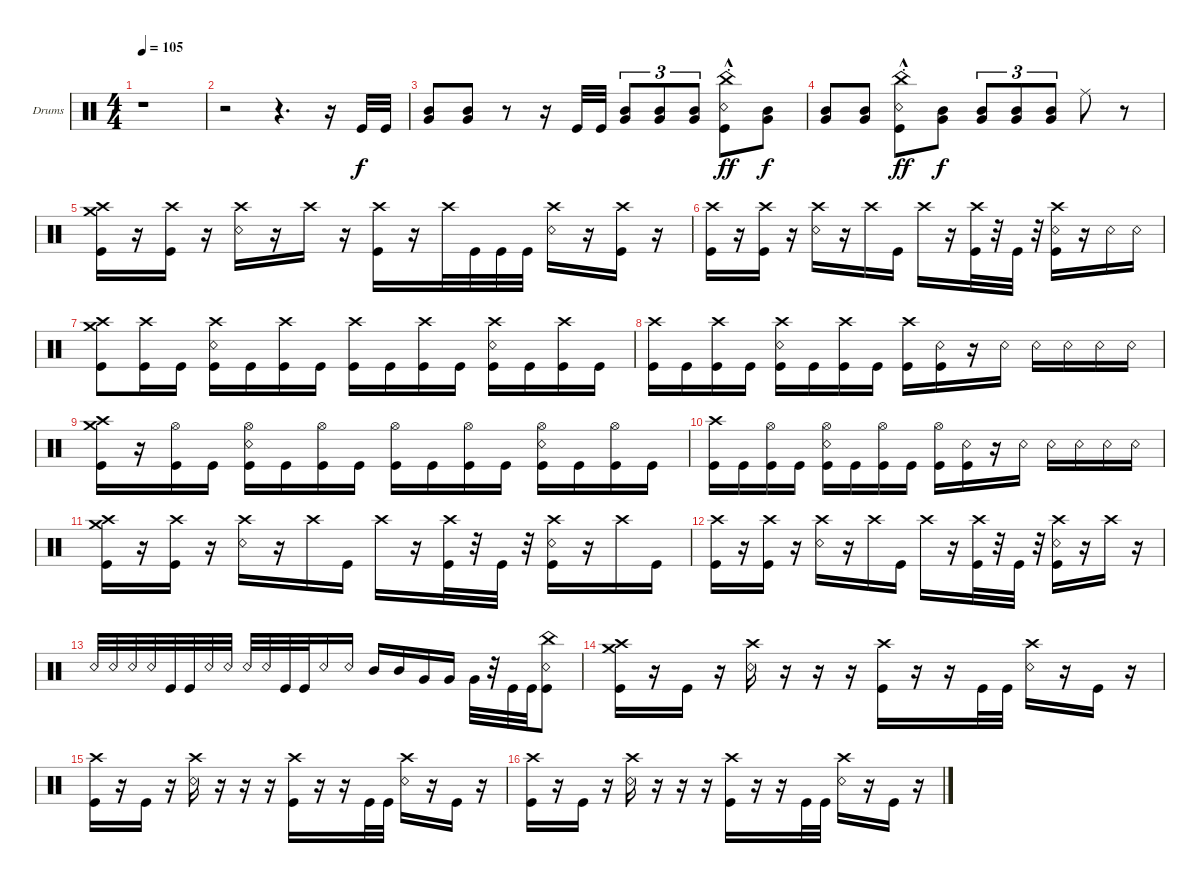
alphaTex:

\bracketExtendMode groupsimilarinstruments
\firstSystemTrackNameOrientation horizontal
\otherSystemsTrackNameOrientation horizontal
\track ("[STEWART]" "Drums") {instrument percussion}
\staff {score}
\articulation defaults
\ts (4 4)
\tempo 105
\clef neutral
\ks c
r.1{dy f} |
r.2 r.4{d} r.16 "Kick (hit)".32 "Kick (hit)".32 |
("Very Low Tom (hit)" "Mid Tom (hit)").8 ("Very Low Tom (hit)" "Mid Tom (hit)").8 r.8 r.16 "Kick (hit)".32 "Kick (hit)".32 ("Mid Tom (hit)" "Very Low Tom (hit)").8{tu (3 2)} ("Very Low Tom (hit)" "Mid Tom (hit)").8{tu (3 2)} ("Very Low Tom (hit)" "Mid Tom (hit)").8{tu (3 2)} ("Kick (hit)"{hac st} "Snare (rim shot)" "China (hit)"{hac}).8{dy ff} ("Very Low Tom (hit)" "Mid Tom (hit)").8{dy f} |
("Mid Tom (hit)" "Very Low Tom (hit)").8 ("Mid Tom (hit)" "Very Low Tom (hit)").8 ("Kick (hit)"{hac st} "Snare (rim shot)" "China (hit)").8{dy ff} ("Mid Tom (hit)" "Very Low Tom (hit)").8{dy f} ("Mid Tom (hit)" "Very Low Tom (hit)").8{tu (3 2)} ("Mid Tom (hit)" "Very Low Tom (hit)").8{tu (3 2)} ("Mid Tom (hit)" "Very Low Tom (hit)").8{tu (3 2)} "Ride (middle)".8 r.8 |
("Crash medium (hit)" "Kick (hit)" "Crash high (hit)").16 r.16 ("Kick (hit)" "Crash high (hit)").16 r.16 ("Snare (rim shot)" "Crash high (hit)").16 r.16 "Crash high (hit)".16 r.16 ("Kick (hit)" "Crash high (hit)").16 r.16 "Crash high (hit)".32 "Kick (hit)".32 "Kick (hit)".32 "Kick (hit)".32 ("Snare (rim shot)" "Crash high (hit)").16 r.16 ("Kick (hit)" "Crash high (hit)").16 r.16 |
("Kick (hit)" "Crash high (hit)").16 r.16 ("Kick (hit)" "Crash high (hit)").16 r.16 ("Snare (rim shot)" "Crash high (hit)").16 r.16 "Crash high (hit)".16 "Kick (hit)".16 "Crash high (hit)".16 r.16 ("Kick (hit)" "Crash high (hit)").32 r.32 "Kick (hit)".32 r.32 ("Snare (rim shot)" "Kick (hit)" "Crash high (hit)").16 r.16 "Snare (rim shot)".16 "Snare (rim shot)".16 |
("Kick (hit)" "Crash medium (hit)" "Crash high (hit)").8 ("Kick (hit)" "Crash high (hit)").16 "Kick (hit)".16 ("Kick (hit)" "Snare (rim shot)" "Crash high (hit)").16 "Kick (hit)".16 ("Kick (hit)" "Crash high (hit)").16 "Kick (hit)".16 ("Kick (hit)" "Crash high (hit)").16 "Kick (hit)".16 ("Kick (hit)" "Crash high (hit)").16 "Kick (hit)".16 ("Kick (hit)" "Snare (rim shot)" "Crash high (hit)").16 "Kick (hit)".16 ("Kick (hit)" "Crash high (hit)").16 "Kick (hit)".16 |
("Kick (hit)" "Crash high (hit)").16 "Kick (hit)".16 ("Kick (hit)" "Crash high (hit)").16 "Kick (hit)".16 ("Kick (hit)" "Snare (rim shot)" "Crash high (hit)").16 "Kick (hit)".16 ("Kick (hit)" "Crash high (hit)").16 "Kick (hit)".16 ("Kick (hit)" "Crash high (hit)").16 ("Snare (rim shot)" "Kick (hit)").16 r.16 "Snare (rim shot)".16 "Snare (rim shot)".16 "Snare (rim shot)".16 "Snare (rim shot)".16 "Snare (rim shot)".16 |
("Crash high (hit)" "Kick (hit)" "Crash medium (hit)").16 r.16 ("Kick (hit)" "Hi-Hat (open)").16 "Kick (hit)".16 ("Kick (hit)" "Hi-Hat (open)" "Snare (rim shot)").16 "Kick (hit)".16 ("Kick (hit)" "Hi-Hat (open)").16 "Kick (hit)".16 ("Kick (hit)" "Hi-Hat (open)").16 "Kick (hit)".16 ("Kick (hit)" "Hi-Hat (open)").16 "Kick (hit)".16 ("Kick (hit)" "Hi-Hat (open)" "Snare (rim shot)").16 "Kick (hit)".16 ("Kick (hit)" "Hi-Hat (open)").16 "Kick (hit)".16 |
("Crash high (hit)" "Kick (hit)").16 "Kick (hit)".16 ("Kick (hit)" "Hi-Hat (open)").16 "Kick (hit)".16 ("Kick (hit)" "Hi-Hat (open)" "Snare (rim shot)").16 "Kick (hit)".16 ("Kick (hit)" "Hi-Hat (open)").16 "Kick (hit)".16 ("Kick (hit)" "Hi-Hat (open)").16 ("Snare (rim shot)" "Kick (hit)").16 r.16 "Snare (rim shot)".16 "Snare (rim shot)".16 "Snare (rim shot)".16 "Snare (rim shot)".16 "Snare (rim shot)".16 |
("Kick (hit)" "Crash high (hit)" "Crash medium (hit)").16 r.16 ("Kick (hit)" "Crash high (hit)").16 r.16 ("Snare (rim shot)" "Crash high (hit)").16 r.16 "Crash high (hit)".16 "Kick (hit)".16 "Crash high (hit)".16 r.16 ("Kick (hit)" "Crash high (hit)").32 r.32 "Kick (hit)".32 r.32 ("Snare (rim shot)" "Kick (hit)" "Crash high (hit)").16 r.16 "Crash high (hit)".16 "Kick (hit)".16 |
("Kick (hit)" "Crash high (hit)").16 r.16 ("Kick (hit)" "Crash high (hit)").16 r.16 ("Snare (rim shot)" "Crash high (hit)").16 r.16 "Crash high (hit)".16 "Kick (hit)".16 "Crash high (hit)".16 r.16 ("Kick (hit)" "Crash high (hit)").32 r.32 "Kick (hit)".32 r.32 ("Snare (rim shot)" "Kick (hit)" "Crash high (hit)").16 r.16 "Crash high (hit)".16 r.16 |
"Snare (rim shot)".32 "Snare (rim shot)".32 "Snare (rim shot)".32 "Snare (rim shot)".32 "Kick (hit)".32 "Kick (hit)".32 "Snare (rim shot)".32 "Snare (rim shot)".32 "Snare (rim shot)".32 "Snare (rim shot)".32 "Kick (hit)".32 "Kick (hit)".32 "Snare (rim shot)".16 "Snare (rim shot)".16 "Mid Tom (hit)".16 "Mid Tom (hit)".16 "Very Low Tom (hit)".16 "Very Low Tom (hit)".16 "Very Low Tom (hit)".32 r.32 "Kick (hit)".32 "Kick (hit)".32 ("Kick (hit)" "China (hit)" "Snare (rim shot)").8 |
("Crash medium (hit)" "Kick (hit)" "Crash high (hit)").16 r.16 "Kick (hit)".16 r.16 ("Snare (rim shot)" "Crash high (hit)").16 r.16 r.16 r.16 ("Kick (hit)" "Crash high (hit)").16 r.16 r.16 "Kick (hit)".32 "Kick (hit)".32 ("Snare (rim shot)" "Crash high (hit)").16 r.16 "Kick (hit)".16 r.16 |
("Kick (hit)" "Crash high (hit)").16 r.16 "Kick (hit)".16 r.16 ("Snare (rim shot)" "Crash high (hit)").16 r.16 r.16 r.16 ("Kick (hit)" "Crash high (hit)").16 r.16 r.16 "Kick (hit)".32 "Kick (hit)".32 ("Snare (rim shot)" "Crash high (hit)").16 r.16 "Kick (hit)".16 r.16 |
("Kick (hit)" "Crash high (hit)").16 r.16 "Kick (hit)".16 r.16 ("Snare (rim shot)" "Crash high (hit)").16 r.16 r.16 r.16 ("Kick (hit)" "Crash high (hit)").16 r.16 r.16 "Kick (hit)".32 "Kick (hit)".32 ("Snare (rim shot)" "Crash high (hit)").16 r.16 "Kick (hit)".16 r.16
